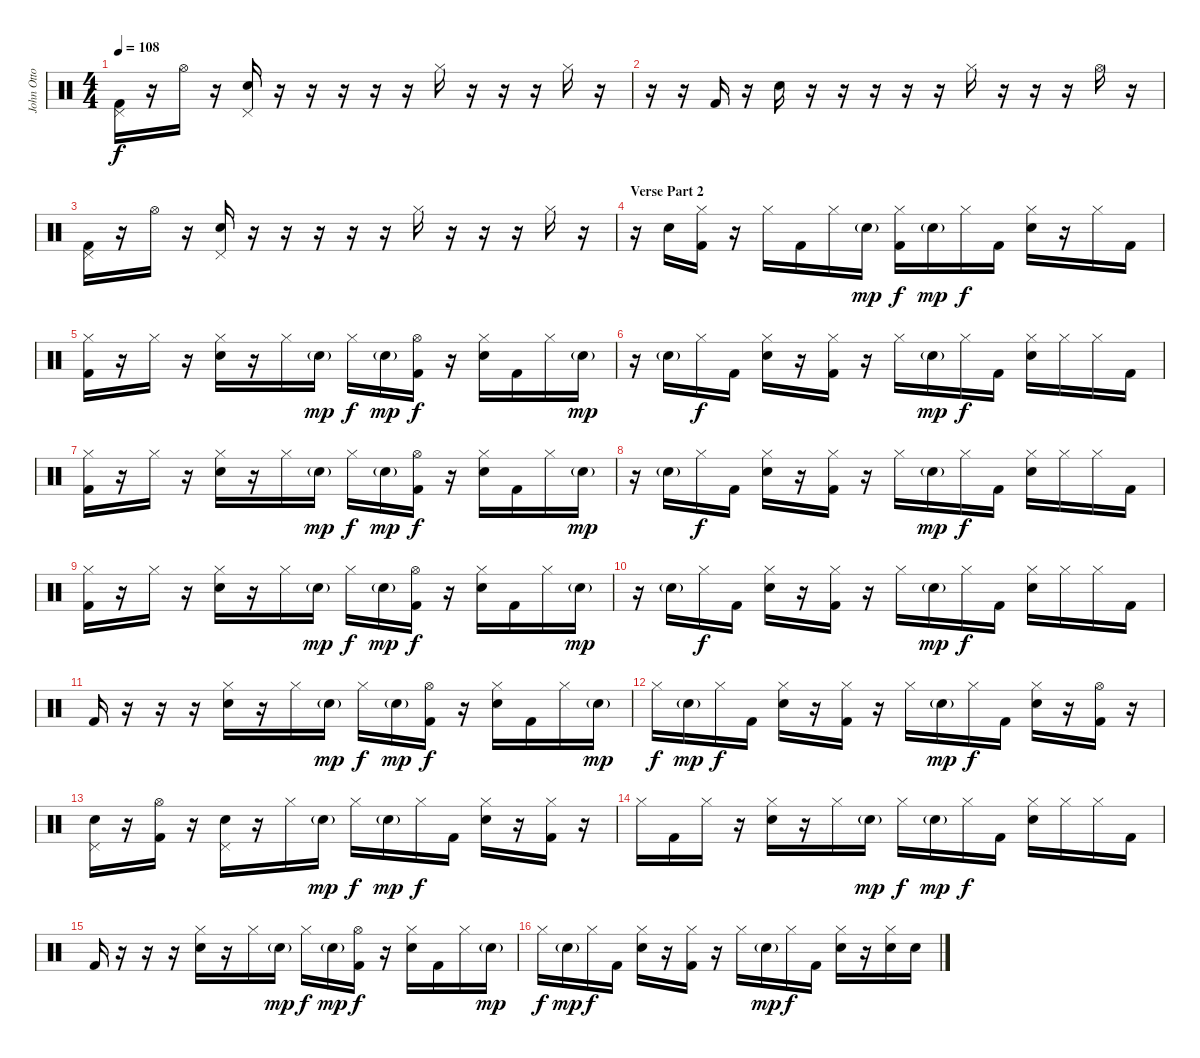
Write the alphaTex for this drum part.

\track ("John Otto - Drums" "John Otto ") {instrument percussion}
\staff {score}
\articulation defaults
\ts (4 4)
\tempo 108
\clef neutral
\ks c
("Pedal Hi-Hat (hit)" "Kick (hit) 2").16{dy f} r.16 "Hi-Hat (open)".16 r.16 ("Pedal Hi-Hat (hit)" "Snare (hit) 2").16 r.16 r.16 r.16 r.16 r.16 "Hi-Hat (closed)".16 r.16 r.16 r.16 "Hi-Hat (closed)".16 r.16 |
r.16 r.16 "Kick (hit) 2".16 r.16 "Snare (hit) 2".16 r.16 r.16 r.16 r.16 r.16 "Hi-Hat (closed)".16 r.16 r.16 r.16 "Hi-Hat (open)".16 r.16 |
("Pedal Hi-Hat (hit)" "Kick (hit) 2").16 r.16 "Hi-Hat (open)".16 r.16 ("Pedal Hi-Hat (hit)" "Snare (hit) 2").16 r.16 r.16 r.16 r.16 r.16 "Hi-Hat (closed)".16 r.16 r.16 r.16 "Hi-Hat (closed)".16 r.16 |
\section ("" "Verse Part 2")
r.16 "Snare (hit) 2".16 ("Hi-Hat (closed)" "Kick (hit) 2").16 r.16 "Hi-Hat (closed)".16 "Kick (hit) 2".16 "Hi-Hat (closed)".16 "Snare (hit) 2"{g}.16{dy mp} ("Hi-Hat (closed)" "Kick (hit) 2").16{dy f} "Snare (hit) 2"{g}.16{dy mp} "Hi-Hat (closed)".16{dy f} "Kick (hit) 2".16 ("Hi-Hat (closed)" "Snare (hit) 2").16 r.16 "Hi-Hat (closed)".16 "Kick (hit) 2".16 |
("Hi-Hat (closed)" "Kick (hit) 2").16 r.16 "Hi-Hat (closed)".16 r.16 ("Hi-Hat (closed)" "Snare (hit) 2").16 r.16 "Hi-Hat (closed)".16 "Snare (hit) 2"{g}.16{dy mp} "Hi-Hat (closed)".16{dy f} "Snare (hit) 2"{g}.16{dy mp} ("Hi-Hat (open)" "Kick (hit) 2").16{dy f} r.16 ("Hi-Hat (closed)" "Snare (hit) 2").16 "Kick (hit) 2".16 "Hi-Hat (closed)".16 "Snare (hit) 2"{g}.16{dy mp} |
r.16 "Snare (hit) 2"{g}.16 "Hi-Hat (closed)".16{dy f} "Kick (hit) 2".16 ("Hi-Hat (closed)" "Snare (hit) 2").16 r.16 ("Hi-Hat (closed)" "Kick (hit) 2").16 r.16 "Hi-Hat (closed)".16 "Snare (hit) 2"{g}.16{dy mp} "Hi-Hat (closed)".16{dy f} "Kick (hit) 2".16 ("Hi-Hat (closed)" "Snare (hit) 2").16 "Hi-Hat (closed)".16 "Hi-Hat (closed)".16 "Kick (hit) 2".16 |
("Hi-Hat (closed)" "Kick (hit) 2").16 r.16 "Hi-Hat (closed)".16 r.16 ("Hi-Hat (closed)" "Snare (hit) 2").16 r.16 "Hi-Hat (closed)".16 "Snare (hit) 2"{g}.16{dy mp} "Hi-Hat (closed)".16{dy f} "Snare (hit) 2"{g}.16{dy mp} ("Hi-Hat (open)" "Kick (hit) 2").16{dy f} r.16 ("Hi-Hat (closed)" "Snare (hit) 2").16 "Kick (hit) 2".16 "Hi-Hat (closed)".16 "Snare (hit) 2"{g}.16{dy mp} |
r.16 "Snare (hit) 2"{g}.16 "Hi-Hat (closed)".16{dy f} "Kick (hit) 2".16 ("Hi-Hat (closed)" "Snare (hit) 2").16 r.16 ("Hi-Hat (closed)" "Kick (hit) 2").16 r.16 "Hi-Hat (closed)".16 "Snare (hit) 2"{g}.16{dy mp} "Hi-Hat (closed)".16{dy f} "Kick (hit) 2".16 ("Hi-Hat (closed)" "Snare (hit) 2").16 "Hi-Hat (closed)".16 "Hi-Hat (closed)".16 "Kick (hit) 2".16 |
("Hi-Hat (closed)" "Kick (hit) 2").16 r.16 "Hi-Hat (closed)".16 r.16 ("Hi-Hat (closed)" "Snare (hit) 2").16 r.16 "Hi-Hat (closed)".16 "Snare (hit) 2"{g}.16{dy mp} "Hi-Hat (closed)".16{dy f} "Snare (hit) 2"{g}.16{dy mp} ("Hi-Hat (open)" "Kick (hit) 2").16{dy f} r.16 ("Hi-Hat (closed)" "Snare (hit) 2").16 "Kick (hit) 2".16 "Hi-Hat (closed)".16 "Snare (hit) 2"{g}.16{dy mp} |
r.16 "Snare (hit) 2"{g}.16 "Hi-Hat (closed)".16{dy f} "Kick (hit) 2".16 ("Hi-Hat (closed)" "Snare (hit) 2").16 r.16 ("Hi-Hat (closed)" "Kick (hit) 2").16 r.16 "Hi-Hat (closed)".16 "Snare (hit) 2"{g}.16{dy mp} "Hi-Hat (closed)".16{dy f} "Kick (hit) 2".16 ("Hi-Hat (closed)" "Snare (hit) 2").16 "Hi-Hat (closed)".16 "Hi-Hat (closed)".16 "Kick (hit) 2".16 |
"Kick (hit) 2".16 r.16 r.16 r.16 ("Hi-Hat (closed)" "Snare (hit) 2").16 r.16 "Hi-Hat (closed)".16 "Snare (hit) 2"{g}.16{dy mp} "Hi-Hat (closed)".16{dy f} "Snare (hit) 2"{g}.16{dy mp} ("Hi-Hat (open)" "Kick (hit) 2").16{dy f} r.16 ("Hi-Hat (closed)" "Snare (hit) 2").16 "Kick (hit) 2".16 "Hi-Hat (closed)".16 "Snare (hit) 2"{g}.16{dy mp} |
"Hi-Hat (closed)".16{dy f} "Snare (hit) 2"{g}.16{dy mp} "Hi-Hat (closed)".16{dy f} "Kick (hit) 2".16 ("Hi-Hat (closed)" "Snare (hit) 2").16 r.16 ("Hi-Hat (closed)" "Kick (hit) 2").16 r.16 "Hi-Hat (closed)".16 "Snare (hit) 2"{g}.16{dy mp} "Hi-Hat (closed)".16{dy f} "Kick (hit) 2".16 ("Hi-Hat (closed)" "Snare (hit) 2").16 r.16 ("Hi-Hat (open)" "Kick (hit) 2").16 r.16 |
("Snare (hit) 2" "Pedal Hi-Hat (hit)").16 r.16 ("Hi-Hat (open)" "Kick (hit) 2").16 r.16 ("Snare (hit) 2" "Pedal Hi-Hat (hit)").16 r.16 "Hi-Hat (closed)".16 "Snare (hit) 2"{g}.16{dy mp} "Hi-Hat (closed)".16{dy f} "Snare (hit) 2"{g}.16{dy mp} "Hi-Hat (closed)".16{dy f} "Kick (hit) 2".16 ("Hi-Hat (closed)" "Snare (hit) 2").16 r.16 ("Hi-Hat (closed)" "Kick (hit) 2").16 r.16 |
"Hi-Hat (closed)".16 "Kick (hit) 2".16 "Hi-Hat (closed)".16 r.16 ("Hi-Hat (closed)" "Snare (hit) 2").16 r.16 "Hi-Hat (closed)".16 "Snare (hit) 2"{g}.16{dy mp} "Hi-Hat (closed)".16{dy f} "Snare (hit) 2"{g}.16{dy mp} "Hi-Hat (closed)".16{dy f} "Kick (hit) 2".16 ("Hi-Hat (closed)" "Snare (hit) 2").16 "Hi-Hat (closed)".16 "Hi-Hat (closed)".16 "Kick (hit) 2".16 |
"Kick (hit) 2".16 r.16 r.16 r.16 ("Hi-Hat (closed)" "Snare (hit) 2").16 r.16 "Hi-Hat (closed)".16 "Snare (hit) 2"{g}.16{dy mp} "Hi-Hat (closed)".16{dy f} "Snare (hit) 2"{g}.16{dy mp} ("Hi-Hat (open)" "Kick (hit) 2").16{dy f} r.16 ("Hi-Hat (closed)" "Snare (hit) 2").16 "Kick (hit) 2".16 "Hi-Hat (closed)".16 "Snare (hit) 2"{g}.16{dy mp} |
"Hi-Hat (closed)".16{dy f} "Snare (hit) 2"{g}.16{dy mp} "Hi-Hat (closed)".16{dy f} "Kick (hit) 2".16 ("Hi-Hat (closed)" "Snare (hit) 2").16 r.16 ("Hi-Hat (closed)" "Kick (hit) 2").16 r.16 "Hi-Hat (closed)".16 "Snare (hit) 2"{g}.16{dy mp} "Hi-Hat (closed)".16{dy f} "Kick (hit) 2".16 ("Hi-Hat (closed)" "Snare (hit) 2").16 r.16 ("Hi-Hat (closed)" "Snare (hit) 2").16 "Snare (hit) 2".16
